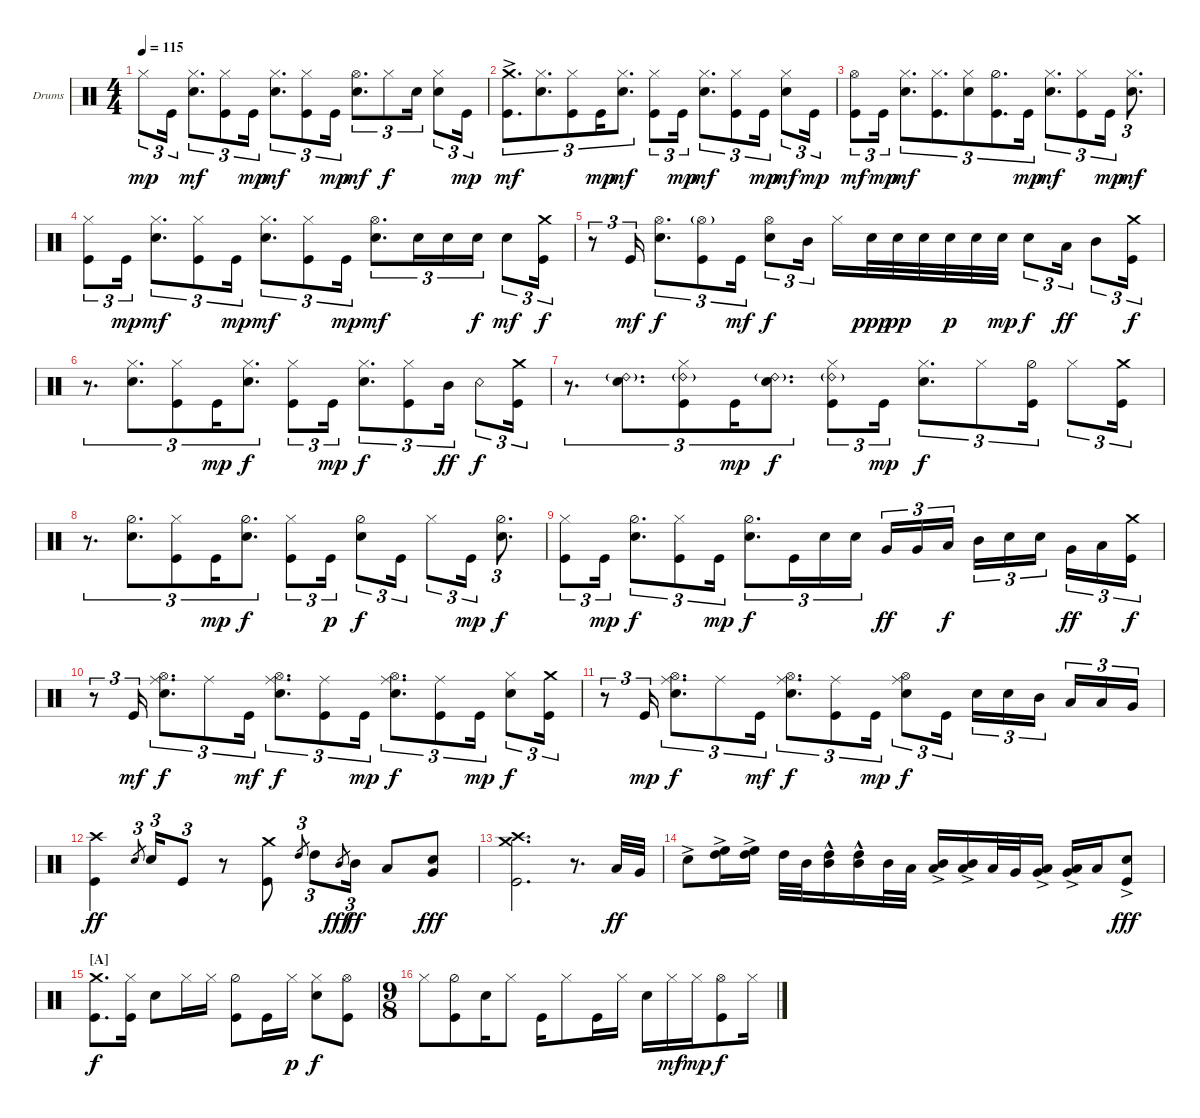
\defaultSystemsLayout 4
\bracketExtendMode groupsimilarinstruments
\firstSystemTrackNameOrientation horizontal
\otherSystemsTrackNameOrientation horizontal
\track ("Batterie " "Drums") {instrument percussion}
\staff {score}
\articulation defaults
\ts (4 4)
\tempo 115
\clef neutral
\ks c "Hi-Hat (closed)".8{tu (3 2) dy mp} "Kick (hit)".16{tu (3 2)}
("Snare (hit) 2" "Hi-Hat (closed)").8{d tu (3 2) dy mf} ("Kick (hit)" "Hi-Hat (closed)").8{tu (3 2)} "Kick (hit)".16{tu (3 2) dy mp} ("Snare (hit) 2" "Hi-Hat (closed)").8{d tu (3 2) dy mf} ("Kick (hit)" "Hi-Hat (closed)").8{tu (3 2)} "Kick (hit)".16{tu (3 2) dy mp} ("Snare (hit) 2" "Hi-Hat (open)").8{d tu (3 2) dy mf} "Hi-Hat (closed)".8{tu (3 2) dy f} "Snare (hit) 2".16{tu (3 2)} ("Snare (hit) 2" "Hi-Hat (closed)").8{tu (3 2)} "Kick (hit)".16{tu (3 2) dy mp} |
("Kick (hit)" "Crash medium (hit)"{ac}).8{d tu (3 2) dy mf} ("Snare (hit) 2" "Hi-Hat (closed)").8{d tu (3 2)} ("Kick (hit)" "Hi-Hat (closed)").8{tu (3 2)} "Kick (hit)".16{tu (3 2) dy mp} ("Snare (hit) 2" "Hi-Hat (closed)").8{d tu (3 2) dy mf} ("Kick (hit)" "Hi-Hat (closed)").8{tu (3 2)} "Kick (hit)".16{tu (3 2) dy mp} ("Snare (hit) 2" "Hi-Hat (closed)").8{d tu (3 2) dy mf} ("Kick (hit)" "Hi-Hat (closed)").8{tu (3 2)} "Kick (hit)".16{tu (3 2) dy mp} ("Snare (hit) 2" "Hi-Hat (closed)").8{tu (3 2) dy mf} "Kick (hit)".16{tu (3 2) dy mp} |
("Kick (hit)" "Hi-Hat (open)").8{tu (3 2) dy mf} "Kick (hit)".16{tu (3 2) dy mp} ("Snare (hit) 2" "Hi-Hat (closed)").8{d tu (3 2) dy mf} ("Kick (hit)" "Hi-Hat (closed)").8{d tu (3 2)} ("Snare (hit) 2" "Hi-Hat (closed)").8{tu (3 2)} ("Kick (hit)" "Hi-Hat (half)").8{d tu (3 2)} "Kick (hit)".16{tu (3 2) dy mp} ("Snare (hit) 2" "Hi-Hat (closed)").8{d tu (3 2) dy mf} ("Kick (hit)" "Hi-Hat (closed)").8{tu (3 2)} "Kick (hit)".16{tu (3 2) dy mp} ("Snare (hit) 2" "Hi-Hat (closed)").8{d tu (3 2) dy mf} |
("Kick (hit)" "Hi-Hat (closed)").8{tu (3 2)} "Kick (hit)".16{tu (3 2) dy mp} ("Snare (hit) 2" "Hi-Hat (closed)").8{d tu (3 2) dy mf} ("Kick (hit)" "Hi-Hat (closed)").8{tu (3 2)} "Kick (hit)".16{tu (3 2) dy mp} ("Snare (hit) 2" "Hi-Hat (closed)").8{d tu (3 2) dy mf} ("Kick (hit)" "Hi-Hat (closed)").8{tu (3 2)} "Kick (hit)".16{tu (3 2) dy mp} ("Snare (hit) 2" "Hi-Hat (open)").8{d tu (3 2) dy mf} "Snare (hit) 2".16{tu (3 2)} "Snare (hit) 2".16{tu (3 2)} "Snare (hit) 2".16{tu (3 2) dy f} "Snare (hit) 2".8{tu (3 2) dy mf} ("Kick (hit)" "Crash medium (hit)").16{tu (3 2) dy f} |
r.8{tu (3 2)} "Kick (hit)".16{tu (3 2) dy mf} ("Snare (hit) 2" "Hi-Hat (open)").8{d tu (3 2) dy f} ("Kick (hit)" "Hi-Hat (open)"{g}).8{tu (3 2)} "Kick (hit)".16{tu (3 2) dy mf} ("Snare (hit) 2" "Hi-Hat (open)").8{tu (3 2) dy f} "Mid Tom (hit)".16{tu (3 2)} "Hi-Hat (closed)".16 "Snare (hit) 2".32{dy ppp} "Snare (hit) 2".32{dy pp} "Snare (hit) 2".32 "Snare (hit) 2".32{dy p} "Snare (hit) 2".32 "Snare (hit) 2".32{dy mp} "Snare (hit) 2".8{tu (3 2) dy f} "Low Tom (hit)".16{tu (3 2) dy ff} "Mid Tom (hit)".8{tu (3 2)} ("Kick (hit)" "Crash medium (hit)").16{tu (3 2) dy f} |
r.8{d tu (3 2)} ("Snare (hit) 2" "Hi-Hat (closed)").8{d tu (3 2)} ("Kick (hit)" "Hi-Hat (closed)").8{tu (3 2)} "Kick (hit)".16{tu (3 2) dy mp} ("Snare (hit) 2" "Hi-Hat (closed)").8{d tu (3 2) dy f} ("Kick (hit)" "Hi-Hat (closed)").8{tu (3 2)} "Kick (hit)".16{tu (3 2) dy mp} ("Snare (hit) 2" "Hi-Hat (closed)").8{d tu (3 2) dy f} ("Kick (hit)" "Hi-Hat (closed)").8{tu (3 2)} "Mid Tom (hit)".16{tu (3 2) dy ff} "Snare (rim shot)".8{tu (3 2) dy f} ("Kick (hit)" "Crash medium (hit)").16{tu (3 2)} |
r.8{d tu (3 2)} ("Snare (hit) 2" "Ride (bell) 2"{g}).8{d tu (3 2)} ("Kick (hit)" "Hi-Hat (closed)" "Ride (bell) 2"{g}).8{tu (3 2)} "Kick (hit)".16{tu (3 2) dy mp} ("Snare (hit) 2" "Ride (bell) 2"{g}).8{d tu (3 2) dy f} ("Kick (hit)" "Hi-Hat (closed)" "Ride (bell) 2"{g}).8{tu (3 2)} "Kick (hit)".16{tu (3 2) dy mp} ("Snare (hit) 2" "Hi-Hat (closed)").8{d tu (3 2) dy f} "Hi-Hat (closed)".8{tu (3 2)} ("Hi-Hat (half)" "Kick (hit)").16{tu (3 2)} "Hi-Hat (closed)".8{tu (3 2)} ("Kick (hit)" "Crash medium (hit)").16{tu (3 2)} |
r.8{d tu (3 2)} ("Snare (hit) 2" "Hi-Hat (half)").8{d tu (3 2)} ("Kick (hit)" "Hi-Hat (closed)").8{tu (3 2)} "Kick (hit)".16{tu (3 2) dy mp} ("Snare (hit) 2" "Hi-Hat (half)").8{d tu (3 2) dy f} ("Kick (hit)" "Hi-Hat (closed)").8{tu (3 2)} "Kick (hit)".16{tu (3 2) dy p} ("Snare (hit) 2" "Hi-Hat (half)").8{tu (3 2) dy f} "Kick (hit)".16{tu (3 2)} "Hi-Hat (closed)".8{tu (3 2)} "Kick (hit)".16{tu (3 2) dy mp} ("Snare (hit) 2" "Hi-Hat (half)").8{d tu (3 2) dy f} |
("Kick (hit)" "Hi-Hat (closed)").8{tu (3 2)} "Kick (hit)".16{tu (3 2) dy mp} ("Snare (hit) 2" "Hi-Hat (half)").8{d tu (3 2) dy f} ("Kick (hit)" "Hi-Hat (closed)").8{tu (3 2)} "Kick (hit)".16{tu (3 2) dy mp} ("Snare (hit) 2" "Hi-Hat (half)").8{d tu (3 2) dy f} "Kick (hit)".16{tu (3 2)} "Snare (hit) 2".16{tu (3 2)} "Snare (hit) 2".16{tu (3 2)} "Very Low Tom (hit)".16{tu (3 2) dy ff} "Very Low Tom (hit)".16{tu (3 2)} "Low Tom (hit)".16{tu (3 2) dy f} "Mid Tom (hit)".16{tu (3 2)} "Snare (hit) 2".16{tu (3 2)} "Snare (hit) 2".16{tu (3 2)} "Very Low Tom (hit)".16{tu (3 2) dy ff} "Low Tom (hit)".16{tu (3 2)} ("Crash medium (hit)" "Kick (hit)").16{tu (3 2) dy f} |
r.8{tu (3 2)} "Kick (hit)".16{tu (3 2) dy mf} ("Snare (hit) 2" "Hi-Hat (open)" "Ride (middle)").8{d tu (3 2) dy f} "Ride (middle)".8{tu (3 2)} "Kick (hit)".16{tu (3 2) dy mf} ("Snare (hit) 2" "Hi-Hat (open)" "Ride (middle)").8{d tu (3 2) dy f} ("Kick (hit)" "Ride (middle)").8{tu (3 2)} "Kick (hit)".16{tu (3 2) dy mp} ("Snare (hit) 2" "Hi-Hat (open)" "Ride (middle)").8{d tu (3 2) dy f} ("Kick (hit)" "Ride (middle)").8{tu (3 2)} "Kick (hit)".16{tu (3 2) dy mp} ("Snare (hit) 2" "Hi-Hat (closed)").8{tu (3 2) dy f} ("Kick (hit)" "Crash medium (hit)").16{tu (3 2)} |
r.8{tu (3 2)} "Kick (hit)".16{tu (3 2) dy mp} ("Snare (hit) 2" "Hi-Hat (open)" "Ride (middle)").8{d tu (3 2) dy f} "Ride (middle)".8{tu (3 2)} "Kick (hit)".16{tu (3 2) dy mf} ("Snare (hit) 2" "Hi-Hat (open)" "Ride (middle)").8{d tu (3 2) dy f} ("Kick (hit)" "Ride (middle)").8{tu (3 2)} "Kick (hit)".16{tu (3 2) dy mp} ("Snare (hit) 2" "Hi-Hat (open)" "Ride (middle)").8{tu (3 2) dy f} "Kick (hit)".16{tu (3 2)} "Snare (hit) 2".16{tu (3 2)} "Snare (hit) 2".16{tu (3 2)} "Mid Tom (hit)".16{tu (3 2)} "Low Tom (hit)".16{tu (3 2)} "Low Tom (hit)".16{tu (3 2)} "Very Low Tom (hit)".16{tu (3 2)} |
("Kick (hit)" "Crash high (hit)").4{dy ff} "Snare (hit) 2".8{tu (3 2) gr} "Snare (hit) 2".16{tu (3 2)} "Kick (hit)".8{tu (3 2)} r.8 ("Kick (hit)" "Crash medium (hit)").8 "High Tom (hit)".8{tu (3 2) gr} "High Tom (hit)".8{tu (3 2)} "Mid Tom (hit)".8{tu (3 2) gr dy fff} "Mid Tom (hit)".16{tu (3 2) dy ff} "Low Tom (hit)".8 ("Very Low Tom (hit)" "Snare (hit) 2").8{dy fff} |
("Kick (hit)" "Crash medium (hit)" "Crash high (hit)").2{d} r.8{d} "Low Tom (hit)".32{dy ff} "Very Low Tom (hit)".32 |
"Snare (hit) 2"{ac}.8 ("High Tom (hit)"{ac} "High Floor Tom (hit)"{ac}).16 ("High Tom (hit)"{ac} "High Floor Tom (hit)"{ac}).16 "High Tom (hit)".32 "Mid Tom (hit)".32 ("High Tom (hit)"{hac} "Mid Tom (hit)"{hac}).16 ("Mid Tom (hit)"{hac} "High Tom (hit)"{hac}).16 "Mid Tom (hit)".32 "Low Tom (hit)".32 ("Low Tom (hit)"{ac} "Mid Tom (hit)"{ac}).16 ("Mid Tom (hit)"{ac} "Low Tom (hit)"{ac}).16 "Low Tom (hit)".32 "Very Low Tom (hit)".32 ("Very Low Tom (hit)"{ac} "Low Tom (hit)"{ac}).16 ("Very Low Tom (hit)"{ac} "Low Tom (hit)"{ac}).16 "Low Tom (hit)".16 ("Snare (hit) 2"{ac} "Kick (hit)").8{dy fff} |
\section ("A" "")
("Kick (hit)" "Crash medium (hit)").8{d dy f} ("Kick (hit)" "Hi-Hat (closed)").16 "Snare (hit) 2".8 "Hi-Hat (closed)".16 "Hi-Hat (closed)".16 ("Hi-Hat (half)" "Kick (hit)").8 "Kick (hit)".16 "Hi-Hat (closed)".16{dy p} ("Snare (hit) 2" "Hi-Hat (closed)").8{dy f} ("Kick (hit)" "Hi-Hat (open)").8 |
\ts (9 8)
"Hi-Hat (closed)".8 ("Kick (hit)" "Hi-Hat (half)").8 "Snare (hit) 2".16 "Hi-Hat (closed)".8 "Kick (hit)".16 "Hi-Hat (closed)".8 "Kick (hit)".16 "Hi-Hat (closed)".16 "Snare (hit) 2".16 "Hi-Hat (closed)".16{dy mf} "Hi-Hat (closed)".16{dy mp} ("Kick (hit)" "Hi-Hat (open)").8{dy f} "Hi-Hat (closed)".16
